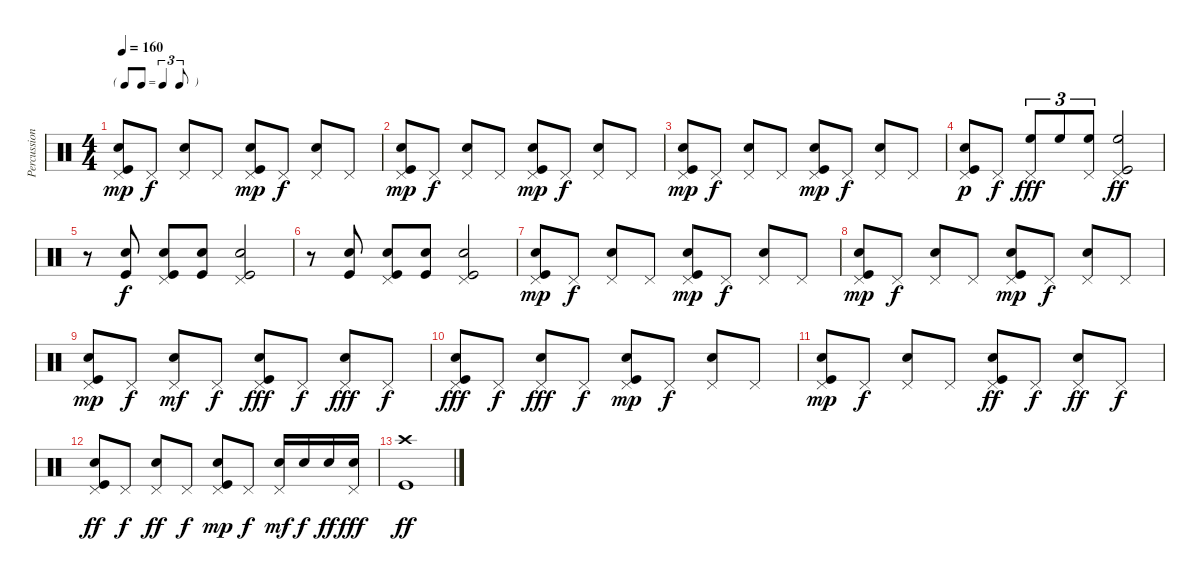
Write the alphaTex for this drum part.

\track ("Percussions" "Percussion") {instrument percussion}
\staff {score}
\articulation defaults
\ts (4 4)
\tf triplet8th
\tempo 160
\clef neutral
\ks c
("Pedal Hi-Hat (hit)" "Snare (hit) 2" "Kick (hit)").8{dy mp} "Pedal Hi-Hat (hit)".8{dy f} ("Pedal Hi-Hat (hit)" "Snare (hit) 2").8 "Pedal Hi-Hat (hit)".8 ("Pedal Hi-Hat (hit)" "Snare (hit) 2" "Kick (hit)").8{dy mp} "Pedal Hi-Hat (hit)".8{dy f} ("Pedal Hi-Hat (hit)" "Snare (hit) 2").8 "Pedal Hi-Hat (hit)".8 |
("Pedal Hi-Hat (hit)" "Snare (hit) 2" "Kick (hit)").8{dy mp} "Pedal Hi-Hat (hit)".8{dy f} ("Pedal Hi-Hat (hit)" "Snare (hit) 2").8 "Pedal Hi-Hat (hit)".8 ("Pedal Hi-Hat (hit)" "Snare (hit) 2" "Kick (hit)").8{dy mp} "Pedal Hi-Hat (hit)".8{dy f} ("Pedal Hi-Hat (hit)" "Snare (hit) 2").8 "Pedal Hi-Hat (hit)".8 |
("Pedal Hi-Hat (hit)" "Snare (hit) 2" "Kick (hit)").8{dy mp} "Pedal Hi-Hat (hit)".8{dy f} ("Pedal Hi-Hat (hit)" "Snare (hit) 2").8 "Pedal Hi-Hat (hit)".8 ("Pedal Hi-Hat (hit)" "Snare (hit) 2" "Kick (hit)").8{dy mp} "Pedal Hi-Hat (hit)".8{dy f} ("Pedal Hi-Hat (hit)" "Snare (hit) 2").8 "Pedal Hi-Hat (hit)".8 |
("Pedal Hi-Hat (hit)" "Snare (hit) 2" "Kick (hit)").8{dy p} "Pedal Hi-Hat (hit)".8{dy f} ("Pedal Hi-Hat (hit)" "High Floor Tom (hit)").8{tu (3 2) dy fff} "High Floor Tom (hit)".8{tu (3 2)} ("Pedal Hi-Hat (hit)" "High Floor Tom (hit)").8{tu (3 2)} ("Pedal Hi-Hat (hit)" "High Floor Tom (hit)" "Kick (hit)").2{dy ff} |
r.8 ("Snare (hit) 2" "Kick (hit)").8{dy f} ("Pedal Hi-Hat (hit)" "Snare (hit) 2" "Kick (hit)").8 ("Snare (hit) 2" "Kick (hit)").8 ("Pedal Hi-Hat (hit)" "Snare (hit) 2" "Kick (hit)").2 |
r.8 ("Snare (hit) 2" "Kick (hit)").8 ("Pedal Hi-Hat (hit)" "Snare (hit) 2" "Kick (hit)").8 ("Snare (hit) 2" "Kick (hit)").8 ("Pedal Hi-Hat (hit)" "Snare (hit) 2" "Kick (hit)").2 |
("Pedal Hi-Hat (hit)" "Snare (hit) 2" "Kick (hit)").8{dy mp} "Pedal Hi-Hat (hit)".8{dy f} ("Pedal Hi-Hat (hit)" "Snare (hit) 2").8 "Pedal Hi-Hat (hit)".8 ("Pedal Hi-Hat (hit)" "Snare (hit) 2" "Kick (hit)").8{dy mp} "Pedal Hi-Hat (hit)".8{dy f} ("Pedal Hi-Hat (hit)" "Snare (hit) 2").8 "Pedal Hi-Hat (hit)".8 |
("Pedal Hi-Hat (hit)" "Snare (hit) 2" "Kick (hit)").8{dy mp} "Pedal Hi-Hat (hit)".8{dy f} ("Pedal Hi-Hat (hit)" "Snare (hit) 2").8 "Pedal Hi-Hat (hit)".8 ("Pedal Hi-Hat (hit)" "Snare (hit) 2" "Kick (hit)").8{dy mp} "Pedal Hi-Hat (hit)".8{dy f} ("Pedal Hi-Hat (hit)" "Snare (hit) 2").8 "Pedal Hi-Hat (hit)".8 |
("Pedal Hi-Hat (hit)" "Snare (hit) 2" "Kick (hit)").8{dy mp} "Pedal Hi-Hat (hit)".8{dy f} ("Pedal Hi-Hat (hit)" "Snare (hit) 2").8{dy mf} "Pedal Hi-Hat (hit)".8{dy f} ("Pedal Hi-Hat (hit)" "Electric Snare (hit)" "Kick (hit)").8{dy fff} "Pedal Hi-Hat (hit)".8{dy f} ("Pedal Hi-Hat (hit)" "Electric Snare (hit)").8{dy fff} "Pedal Hi-Hat (hit)".8{dy f} |
("Pedal Hi-Hat (hit)" "Electric Snare (hit)" "Kick (hit)").8{dy fff} "Pedal Hi-Hat (hit)".8{dy f} ("Pedal Hi-Hat (hit)" "Electric Snare (hit)").8{dy fff} "Pedal Hi-Hat (hit)".8{dy f} ("Pedal Hi-Hat (hit)" "Snare (hit) 2" "Kick (hit)").8{dy mp} "Pedal Hi-Hat (hit)".8{dy f} ("Pedal Hi-Hat (hit)" "Snare (hit) 2").8 "Pedal Hi-Hat (hit)".8 |
("Pedal Hi-Hat (hit)" "Snare (hit) 2" "Kick (hit)").8{dy mp} "Pedal Hi-Hat (hit)".8{dy f} ("Pedal Hi-Hat (hit)" "Snare (hit) 2").8 "Pedal Hi-Hat (hit)".8 ("Pedal Hi-Hat (hit)" "Electric Snare (hit)" "Kick (hit)").8{dy ff} "Pedal Hi-Hat (hit)".8{dy f} ("Pedal Hi-Hat (hit)" "Electric Snare (hit)").8{dy ff} "Pedal Hi-Hat (hit)".8{dy f} |
("Pedal Hi-Hat (hit)" "Electric Snare (hit)" "Kick (hit)").8{dy ff} "Pedal Hi-Hat (hit)".8{dy f} ("Pedal Hi-Hat (hit)" "Electric Snare (hit)").8{dy ff} "Pedal Hi-Hat (hit)".8{dy f} ("Pedal Hi-Hat (hit)" "Snare (hit) 2" "Kick (hit)").8{dy mp} "Pedal Hi-Hat (hit)".8{dy f} ("Pedal Hi-Hat (hit)" "Snare (hit) 2").16{dy mf} "Electric Snare (hit)".16{dy f} "Electric Snare (hit)".16{dy ff} ("Pedal Hi-Hat (hit)" "Electric Snare (hit)").16{dy fff} |
("Crash high (hit)" "Kick (hit)").1{dy ff}
